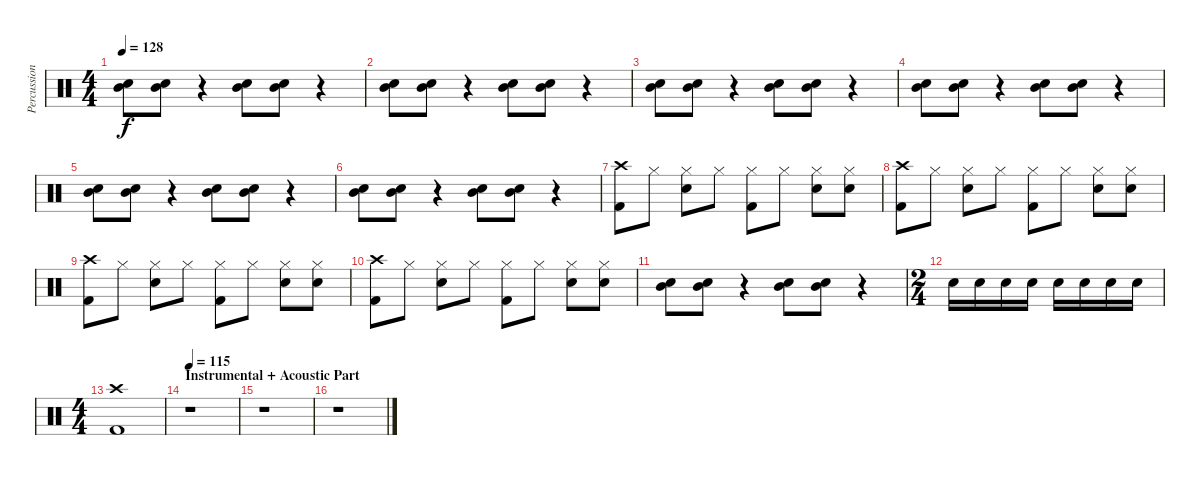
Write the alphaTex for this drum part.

\track ("Percussion" "Percussion") {instrument percussion}
\staff {score}
\articulation defaults
\ts (4 4)
\tempo 128
\clef neutral
\ks c
("Snare (hit) 2" "Mid Tom (hit)").8{dy f} ("Snare (hit) 2" "Mid Tom (hit)").8 r.4 ("Snare (hit) 2" "Mid Tom (hit)").8 ("Snare (hit) 2" "Mid Tom (hit)").8 r.4 |
("Snare (hit) 2" "Mid Tom (hit)").8 ("Snare (hit) 2" "Mid Tom (hit)").8 r.4 ("Snare (hit) 2" "Mid Tom (hit)").8 ("Snare (hit) 2" "Mid Tom (hit)").8 r.4 |
("Snare (hit) 2" "Mid Tom (hit)").8 ("Snare (hit) 2" "Mid Tom (hit)").8 r.4 ("Snare (hit) 2" "Mid Tom (hit)").8 ("Snare (hit) 2" "Mid Tom (hit)").8 r.4 |
("Snare (hit) 2" "Mid Tom (hit)").8 ("Snare (hit) 2" "Mid Tom (hit)").8 r.4 ("Snare (hit) 2" "Mid Tom (hit)").8 ("Snare (hit) 2" "Mid Tom (hit)").8 r.4 |
("Snare (hit) 2" "Mid Tom (hit)").8 ("Snare (hit) 2" "Mid Tom (hit)").8 r.4 ("Snare (hit) 2" "Mid Tom (hit)").8 ("Snare (hit) 2" "Mid Tom (hit)").8 r.4 |
("Snare (hit) 2" "Mid Tom (hit)").8 ("Snare (hit) 2" "Mid Tom (hit)").8 r.4 ("Snare (hit) 2" "Mid Tom (hit)").8 ("Snare (hit) 2" "Mid Tom (hit)").8 r.4 |
("Crash high (hit)" "Kick (hit) 2").8 "Hi-Hat (closed)".8 ("Hi-Hat (closed)" "Snare (hit) 2").8 "Hi-Hat (closed)".8 ("Hi-Hat (closed)" "Kick (hit) 2").8 "Hi-Hat (closed)".8 ("Hi-Hat (closed)" "Snare (hit) 2").8 ("Hi-Hat (closed)" "Snare (hit) 2").8 |
("Crash high (hit)" "Kick (hit) 2").8 "Hi-Hat (closed)".8 ("Hi-Hat (closed)" "Snare (hit) 2").8 "Hi-Hat (closed)".8 ("Hi-Hat (closed)" "Kick (hit) 2").8 "Hi-Hat (closed)".8 ("Hi-Hat (closed)" "Snare (hit) 2").8 ("Hi-Hat (closed)" "Snare (hit) 2").8 |
("Crash high (hit)" "Kick (hit) 2").8 "Hi-Hat (closed)".8 ("Hi-Hat (closed)" "Snare (hit) 2").8 "Hi-Hat (closed)".8 ("Hi-Hat (closed)" "Kick (hit) 2").8 "Hi-Hat (closed)".8 ("Hi-Hat (closed)" "Snare (hit) 2").8 ("Hi-Hat (closed)" "Snare (hit) 2").8 |
("Crash high (hit)" "Kick (hit) 2").8 "Hi-Hat (closed)".8 ("Hi-Hat (closed)" "Snare (hit) 2").8 "Hi-Hat (closed)".8 ("Hi-Hat (closed)" "Kick (hit) 2").8 "Hi-Hat (closed)".8 ("Hi-Hat (closed)" "Snare (hit) 2").8 ("Hi-Hat (closed)" "Snare (hit) 2").8 |
("Snare (hit) 2" "Mid Tom (hit)").8 ("Snare (hit) 2" "Mid Tom (hit)").8 r.4 ("Snare (hit) 2" "Mid Tom (hit)").8 ("Snare (hit) 2" "Mid Tom (hit)").8 r.4 |
\ts (2 4)
"Snare (hit) 2".16 "Snare (hit) 2".16 "Snare (hit) 2".16 "Snare (hit) 2".16 "Snare (hit) 2".16 "Snare (hit) 2".16 "Snare (hit) 2".16 "Snare (hit) 2".16 |
\ts (4 4)
("Crash high (hit)" "Kick (hit) 2").1 |
\section ("" "Instrumental + Acoustic Part")
\tempo 115
r.1 |
r.1 |
r.1
